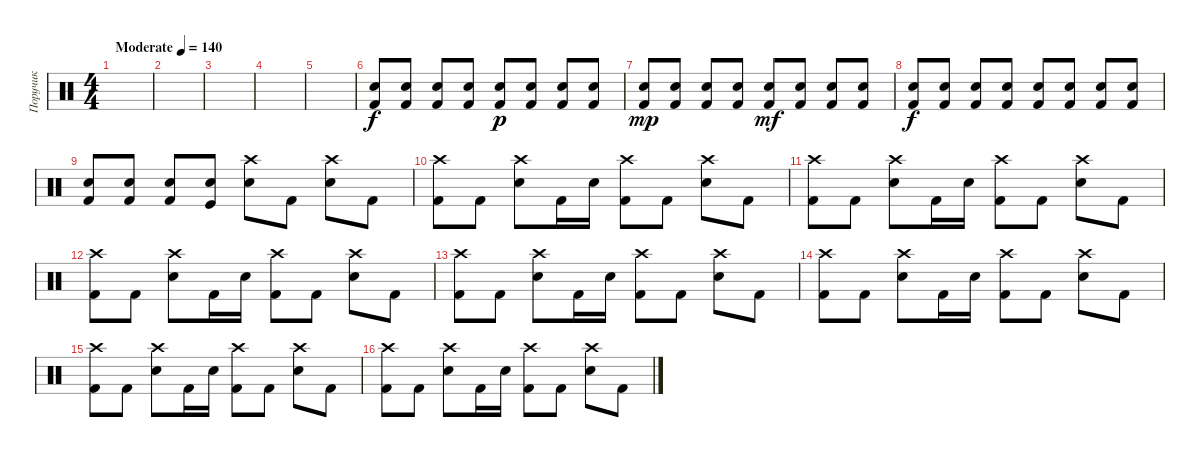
\track ("Поручик" "Поручик") {instrument percussion}
\staff {score}
\articulation defaults
\ts (4 4)
\tempo (140 "Moderate")
\clef neutral
\ks c
|
|
|
|
|
("Electric Snare (hit)" "Kick (hit) 2").8 ("Electric Snare (hit)" "Kick (hit) 2").8 ("Electric Snare (hit)" "Kick (hit) 2").8 ("Electric Snare (hit)" "Kick (hit) 2").8 ("Electric Snare (hit)" "Kick (hit) 2").8{dy p} ("Electric Snare (hit)" "Kick (hit) 2").8 ("Electric Snare (hit)" "Kick (hit) 2").8 ("Electric Snare (hit)" "Kick (hit) 2").8 |
("Electric Snare (hit)" "Kick (hit) 2").8{dy mp} ("Electric Snare (hit)" "Kick (hit) 2").8 ("Electric Snare (hit)" "Kick (hit) 2").8 ("Electric Snare (hit)" "Kick (hit) 2").8 ("Electric Snare (hit)" "Kick (hit) 2").8{dy mf} ("Electric Snare (hit)" "Kick (hit) 2").8 ("Electric Snare (hit)" "Kick (hit) 2").8 ("Electric Snare (hit)" "Kick (hit) 2").8 |
("Electric Snare (hit)" "Kick (hit) 2").8{dy f} ("Electric Snare (hit)" "Kick (hit) 2").8 ("Electric Snare (hit)" "Kick (hit) 2").8 ("Electric Snare (hit)" "Kick (hit) 2").8 ("Electric Snare (hit)" "Kick (hit) 2").8 ("Electric Snare (hit)" "Kick (hit) 2").8 ("Electric Snare (hit)" "Kick (hit) 2").8 ("Electric Snare (hit)" "Kick (hit) 2").8 |
("Electric Snare (hit)" "Kick (hit) 2").8 ("Electric Snare (hit)" "Kick (hit) 2").8 ("Electric Snare (hit)" "Kick (hit) 2").8 ("Electric Snare (hit)" "Kick (hit)").8 ("Crash high (hit)" "Electric Snare (hit)").8 "Kick (hit) 2".8 ("Crash high (hit)" "Electric Snare (hit)").8 "Kick (hit) 2".8 |
("Crash high (hit)" "Kick (hit) 2").8 "Kick (hit) 2".8 ("Crash high (hit)" "Electric Snare (hit)").8 "Kick (hit) 2".16 "Electric Snare (hit)".16 ("Crash high (hit)" "Kick (hit) 2").8 "Kick (hit) 2".8 ("Crash high (hit)" "Electric Snare (hit)").8 "Kick (hit) 2".8 |
("Crash high (hit)" "Kick (hit) 2").8 "Kick (hit) 2".8 ("Crash high (hit)" "Electric Snare (hit)").8 "Kick (hit) 2".16 "Electric Snare (hit)".16 ("Crash high (hit)" "Kick (hit) 2").8 "Kick (hit) 2".8 ("Crash high (hit)" "Electric Snare (hit)").8 "Kick (hit) 2".8 |
("Crash high (hit)" "Kick (hit) 2").8 "Kick (hit) 2".8 ("Crash high (hit)" "Electric Snare (hit)").8 "Kick (hit) 2".16 "Electric Snare (hit)".16 ("Crash high (hit)" "Kick (hit) 2").8 "Kick (hit) 2".8 ("Crash high (hit)" "Electric Snare (hit)").8 "Kick (hit) 2".8 |
("Crash high (hit)" "Kick (hit) 2").8 "Kick (hit) 2".8 ("Crash high (hit)" "Electric Snare (hit)").8 "Kick (hit) 2".16 "Electric Snare (hit)".16 ("Crash high (hit)" "Kick (hit) 2").8 "Kick (hit) 2".8 ("Crash high (hit)" "Electric Snare (hit)").8 "Kick (hit) 2".8 |
("Crash high (hit)" "Kick (hit) 2").8 "Kick (hit) 2".8 ("Crash high (hit)" "Electric Snare (hit)").8 "Kick (hit) 2".16 "Electric Snare (hit)".16 ("Crash high (hit)" "Kick (hit) 2").8 "Kick (hit) 2".8 ("Crash high (hit)" "Electric Snare (hit)").8 "Kick (hit) 2".8 |
("Crash high (hit)" "Kick (hit) 2").8 "Kick (hit) 2".8 ("Crash high (hit)" "Electric Snare (hit)").8 "Kick (hit) 2".16 "Electric Snare (hit)".16 ("Crash high (hit)" "Kick (hit) 2").8 "Kick (hit) 2".8 ("Crash high (hit)" "Electric Snare (hit)").8 "Kick (hit) 2".8 |
("Crash high (hit)" "Kick (hit) 2").8 "Kick (hit) 2".8 ("Crash high (hit)" "Electric Snare (hit)").8 "Kick (hit) 2".16 "Electric Snare (hit)".16 ("Crash high (hit)" "Kick (hit) 2").8 "Kick (hit) 2".8 ("Crash high (hit)" "Electric Snare (hit)").8 "Kick (hit) 2".8
